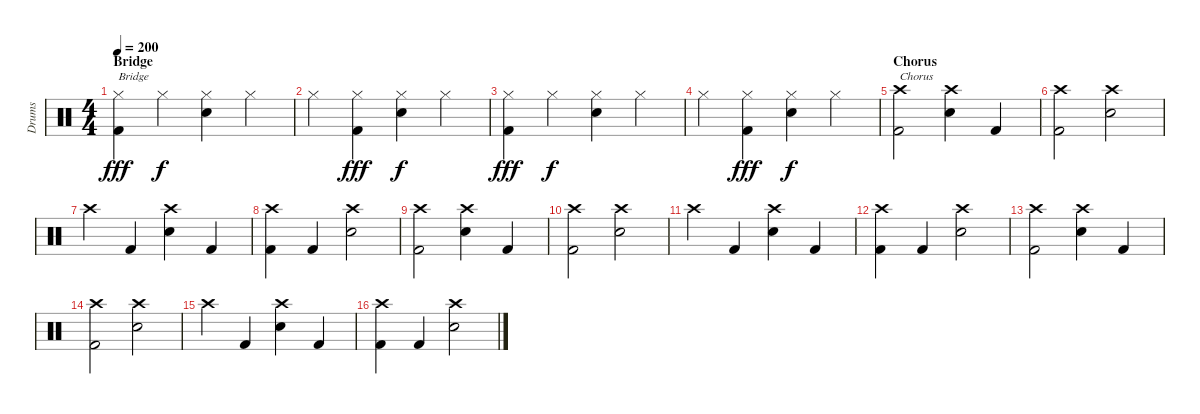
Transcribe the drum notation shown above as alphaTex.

\track ("Drums" "Drums") {instrument percussion}
\staff {score}
\articulation defaults
\ts (4 4)
\section ("" "Bridge")
\tempo 200
\clef neutral
\ks c
("Hi-Hat (closed)" "Kick (hit) 2").4{txt "Bridge" dy fff} "Hi-Hat (closed)".4{dy f} ("Hi-Hat (closed)" "Electric Snare (hit)").4 "Hi-Hat (closed)".4 |
"Hi-Hat (closed)".4 ("Hi-Hat (closed)" "Kick (hit) 2").4{dy fff} ("Hi-Hat (closed)" "Electric Snare (hit)").4{dy f} "Hi-Hat (closed)".4 |
("Hi-Hat (closed)" "Kick (hit) 2").4{dy fff} "Hi-Hat (closed)".4{dy f} ("Hi-Hat (closed)" "Electric Snare (hit)").4 "Hi-Hat (closed)".4 |
"Hi-Hat (closed)".4 ("Hi-Hat (closed)" "Kick (hit) 2").4{dy fff} ("Hi-Hat (closed)" "Electric Snare (hit)").4{dy f} "Hi-Hat (closed)".4 |
\section ("" "Chorus")
("Crash high (hit)" "Kick (hit) 2").2{txt "Chorus"} ("Crash high (hit)" "Electric Snare (hit)").4 "Kick (hit) 2".4 |
("Crash high (hit)" "Kick (hit) 2").2 ("Crash high (hit)" "Electric Snare (hit)").2 |
"Crash high (hit)".4 "Kick (hit) 2".4 ("Crash high (hit)" "Electric Snare (hit)").4 "Kick (hit) 2".4 |
("Crash high (hit)" "Kick (hit) 2").4 "Kick (hit) 2".4 ("Crash high (hit)" "Electric Snare (hit)").2 |
("Crash high (hit)" "Kick (hit) 2").2 ("Crash high (hit)" "Electric Snare (hit)").4 "Kick (hit) 2".4 |
("Crash high (hit)" "Kick (hit) 2").2 ("Crash high (hit)" "Electric Snare (hit)").2 |
"Crash high (hit)".4 "Kick (hit) 2".4 ("Crash high (hit)" "Electric Snare (hit)").4 "Kick (hit) 2".4 |
("Crash high (hit)" "Kick (hit) 2").4 "Kick (hit) 2".4 ("Crash high (hit)" "Electric Snare (hit)").2 |
("Crash high (hit)" "Kick (hit) 2").2 ("Crash high (hit)" "Electric Snare (hit)").4 "Kick (hit) 2".4 |
("Crash high (hit)" "Kick (hit) 2").2 ("Crash high (hit)" "Electric Snare (hit)").2 |
"Crash high (hit)".4 "Kick (hit) 2".4 ("Crash high (hit)" "Electric Snare (hit)").4 "Kick (hit) 2".4 |
("Crash high (hit)" "Kick (hit) 2").4 "Kick (hit) 2".4 ("Crash high (hit)" "Electric Snare (hit)").2
